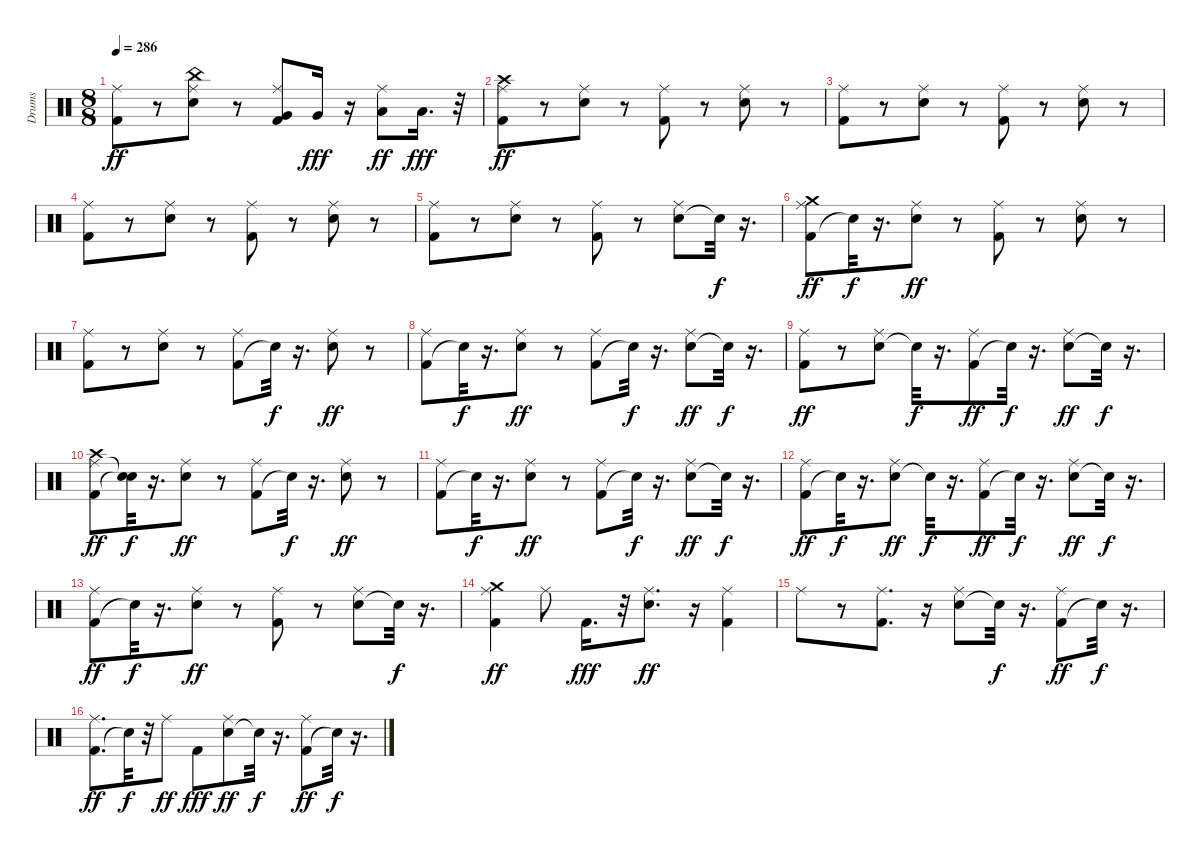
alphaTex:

\track ("Drums" "Drums") {instrument percussion}
\staff {score}
\articulation defaults
\ts (8 8)
\tempo 286
\clef neutral
\ks c
("Kick (hit) 2" "Ride (middle)").8{dy ff} r.8 ("Snare (hit) 2" "Ride (middle)" "China (hit)").8 r.8 ("Kick (hit) 2" "Very Low Tom (hit)" "Ride (middle)").8 "Very Low Tom (hit)".16{dy fff} r.16 ("Low Floor Tom (hit)" "Ride (middle)").8{dy ff} "Low Floor Tom (hit)".16{d dy fff} r.32 |
("Kick (hit) 2" "Ride (middle)" "Crash high (hit)").8{dy ff} r.8 ("Snare (hit) 2" "Ride (middle)").8 r.8 ("Kick (hit) 2" "Ride (middle)").8 r.8 ("Snare (hit) 2" "Ride (middle)").8 r.8 |
("Kick (hit) 2" "Ride (middle)").8 r.8 ("Snare (hit) 2" "Ride (middle)").8 r.8 ("Kick (hit) 2" "Ride (middle)").8 r.8 ("Snare (hit) 2" "Ride (middle)").8 r.8 |
("Kick (hit) 2" "Ride (middle)").8 r.8 ("Snare (hit) 2" "Ride (middle)").8 r.8 ("Kick (hit) 2" "Ride (middle)").8 r.8 ("Snare (hit) 2" "Ride (middle)").8 r.8 |
("Kick (hit) 2" "Ride (middle)").8 r.8 ("Snare (hit) 2" "Ride (middle)").8 r.8 ("Kick (hit) 2" "Ride (middle)").8 r.8 ("Snare (hit) 2" "Ride (middle)").8 "Snare (hit)"{t}.32{dy f} r.16{d} |
("Kick (hit) 2" "Ride (middle)" "Crash medium (hit)").8{dy ff} "Snare (hit)"{t}.32{dy f} r.16{d} ("Snare (hit) 2" "Ride (middle)").8{dy ff} r.8 ("Kick (hit) 2" "Ride (middle)").8 r.8 ("Snare (hit) 2" "Ride (middle)").8 r.8 |
("Kick (hit) 2" "Ride (middle)").8 r.8 ("Snare (hit) 2" "Ride (middle)").8 r.8 ("Kick (hit) 2" "Ride (middle)").8 "Snare (hit)"{t}.32{dy f} r.16{d} ("Snare (hit) 2" "Ride (middle)").8{dy ff} r.8 |
("Kick (hit) 2" "Ride (middle)").8 "Snare (hit)"{t}.32{dy f} r.16{d} ("Snare (hit) 2" "Ride (middle)").8{dy ff} r.8 ("Kick (hit) 2" "Ride (middle)").8 "Snare (hit)"{t}.32{dy f} r.16{d} ("Snare (hit) 2" "Ride (middle)").8{dy ff} "Snare (hit)"{t}.32{dy f} r.16{d} |
("Kick (hit) 2" "Ride (middle)").8{dy ff} r.8 ("Snare (hit) 2" "Ride (middle)").8 "Snare (hit)"{t}.32{dy f} r.16{d} ("Kick (hit) 2" "Ride (middle)").8{dy ff} "Snare (hit)"{t}.32{dy f} r.16{d} ("Snare (hit) 2" "Ride (middle)").8{dy ff} "Snare (hit)"{t}.32{dy f} r.16{d} |
("Kick (hit) 2" "Ride (middle)" "Crash high (hit)").8{dy ff} ("Snare (hit)"{t} "Snare (hit)"{t}).32{dy f} r.16{d} ("Snare (hit) 2" "Ride (middle)").8{dy ff} r.8 ("Kick (hit) 2" "Ride (middle)").8 "Snare (hit)"{t}.32{dy f} r.16{d} ("Snare (hit) 2" "Ride (middle)").8{dy ff} r.8 |
("Kick (hit) 2" "Ride (middle)").8 "Snare (hit)"{t}.32{dy f} r.16{d} ("Snare (hit) 2" "Ride (middle)").8{dy ff} r.8 ("Kick (hit) 2" "Ride (middle)").8 "Snare (hit)"{t}.32{dy f} r.16{d} ("Snare (hit) 2" "Ride (middle)").8{dy ff} "Snare (hit)"{t}.32{dy f} r.16{d} |
("Kick (hit) 2" "Ride (middle)").8{dy ff} "Snare (hit)"{t}.32{dy f} r.16{d} ("Snare (hit) 2" "Ride (middle)").8{dy ff} "Snare (hit)"{t}.32{dy f} r.16{d} ("Kick (hit) 2" "Ride (middle)").8{dy ff} "Snare (hit)"{t}.32{dy f} r.16{d} ("Snare (hit) 2" "Ride (middle)").8{dy ff} "Snare (hit)"{t}.32{dy f} r.16{d} |
("Kick (hit) 2" "Ride (middle)").8{dy ff} "Snare (hit)"{t}.32{dy f} r.16{d} ("Snare (hit) 2" "Ride (middle)").8{dy ff} r.8 ("Kick (hit) 2" "Ride (middle)").8 r.8 ("Snare (hit) 2" "Ride (middle)").8 "Snare (hit)"{t}.32{dy f} r.16{d} |
("Kick (hit) 2" "Ride (middle)" "Crash medium (hit)").4{dy ff} "Ride (middle)".8 "Kick (hit) 2".16{d dy fff} r.32 ("Snare (hit) 2" "Ride (middle)").8{d dy ff} r.16 ("Kick (hit) 2" "Ride (middle)").4 |
"Ride (middle)".8 r.8 ("Kick (hit) 2" "Ride (middle)").8{d} r.16 ("Snare (hit) 2" "Ride (middle)").8 "Snare (hit)"{t}.32{dy f} r.16{d} ("Kick (hit) 2" "Ride (middle)").8{dy ff} "Snare (hit)"{t}.32{dy f} r.16{d} |
("Kick (hit) 2" "Ride (middle)").8{d dy ff} "Snare (hit)"{t}.32{dy f} r.32 "Ride (middle)".8{dy ff} "Kick (hit) 2".8{dy fff} ("Snare (hit) 2" "Ride (middle)").8{dy ff} "Snare (hit)"{t}.32{dy f} r.16{d} ("Kick (hit) 2" "Ride (middle)").8{dy ff} "Snare (hit)"{t}.32{dy f} r.16{d}
